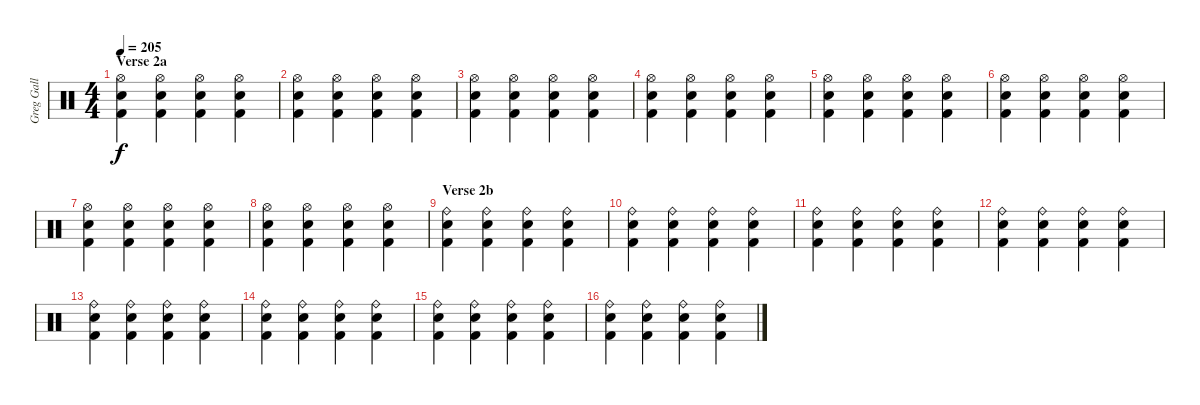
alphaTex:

\track ("Greg Gall - Drums" "Greg Gall ") {instrument percussion}
\staff {score}
\articulation defaults
\ts (4 4)
\section ("" "Verse 2a")
\tempo 205
\clef neutral
\ks c
("Hi-Hat (open)" "Snare (hit) 2" "Kick (hit) 2").4{dy f} ("Hi-Hat (open)" "Snare (hit) 2" "Kick (hit) 2").4 ("Hi-Hat (open)" "Snare (hit) 2" "Kick (hit) 2").4 ("Hi-Hat (open)" "Snare (hit) 2" "Kick (hit) 2").4 |
("Hi-Hat (open)" "Snare (hit) 2" "Kick (hit) 2").4 ("Hi-Hat (open)" "Snare (hit) 2" "Kick (hit) 2").4 ("Hi-Hat (open)" "Snare (hit) 2" "Kick (hit) 2").4 ("Hi-Hat (open)" "Snare (hit) 2" "Kick (hit) 2").4 |
("Hi-Hat (open)" "Snare (hit) 2" "Kick (hit) 2").4 ("Hi-Hat (open)" "Snare (hit) 2" "Kick (hit) 2").4 ("Hi-Hat (open)" "Snare (hit) 2" "Kick (hit) 2").4 ("Hi-Hat (open)" "Snare (hit) 2" "Kick (hit) 2").4 |
("Hi-Hat (open)" "Snare (hit) 2" "Kick (hit) 2").4 ("Hi-Hat (open)" "Snare (hit) 2" "Kick (hit) 2").4 ("Hi-Hat (open)" "Snare (hit) 2" "Kick (hit) 2").4 ("Hi-Hat (open)" "Snare (hit) 2" "Kick (hit) 2").4 |
("Hi-Hat (open)" "Snare (hit) 2" "Kick (hit) 2").4 ("Hi-Hat (open)" "Snare (hit) 2" "Kick (hit) 2").4 ("Hi-Hat (open)" "Snare (hit) 2" "Kick (hit) 2").4 ("Hi-Hat (open)" "Snare (hit) 2" "Kick (hit) 2").4 |
("Hi-Hat (open)" "Snare (hit) 2" "Kick (hit) 2").4 ("Hi-Hat (open)" "Snare (hit) 2" "Kick (hit) 2").4 ("Hi-Hat (open)" "Snare (hit) 2" "Kick (hit) 2").4 ("Hi-Hat (open)" "Snare (hit) 2" "Kick (hit) 2").4 |
("Hi-Hat (open)" "Snare (hit) 2" "Kick (hit) 2").4 ("Hi-Hat (open)" "Snare (hit) 2" "Kick (hit) 2").4 ("Hi-Hat (open)" "Snare (hit) 2" "Kick (hit) 2").4 ("Hi-Hat (open)" "Snare (hit) 2" "Kick (hit) 2").4 |
("Hi-Hat (open)" "Snare (hit) 2" "Kick (hit) 2").4 ("Hi-Hat (open)" "Snare (hit) 2" "Kick (hit) 2").4 ("Hi-Hat (open)" "Snare (hit) 2" "Kick (hit) 2").4 ("Hi-Hat (open)" "Snare (hit) 2" "Kick (hit) 2").4 |
\section ("" "Verse 2b")
("Ride (bell)" "Snare (hit) 2" "Kick (hit) 2").4 ("Ride (bell)" "Snare (hit) 2" "Kick (hit) 2").4 ("Ride (bell)" "Snare (hit) 2" "Kick (hit) 2").4 ("Ride (bell)" "Snare (hit) 2" "Kick (hit) 2").4 |
("Ride (bell)" "Snare (hit) 2" "Kick (hit) 2").4 ("Ride (bell)" "Snare (hit) 2" "Kick (hit) 2").4 ("Ride (bell)" "Snare (hit) 2" "Kick (hit) 2").4 ("Ride (bell)" "Snare (hit) 2" "Kick (hit) 2").4 |
("Ride (bell)" "Snare (hit) 2" "Kick (hit) 2").4 ("Ride (bell)" "Snare (hit) 2" "Kick (hit) 2").4 ("Ride (bell)" "Snare (hit) 2" "Kick (hit) 2").4 ("Ride (bell)" "Snare (hit) 2" "Kick (hit) 2").4 |
("Ride (bell)" "Snare (hit) 2" "Kick (hit) 2").4 ("Ride (bell)" "Snare (hit) 2" "Kick (hit) 2").4 ("Ride (bell)" "Snare (hit) 2" "Kick (hit) 2").4 ("Ride (bell)" "Snare (hit) 2" "Kick (hit) 2").4 |
("Ride (bell)" "Snare (hit) 2" "Kick (hit) 2").4 ("Ride (bell)" "Snare (hit) 2" "Kick (hit) 2").4 ("Ride (bell)" "Snare (hit) 2" "Kick (hit) 2").4 ("Ride (bell)" "Snare (hit) 2" "Kick (hit) 2").4 |
("Ride (bell)" "Snare (hit) 2" "Kick (hit) 2").4 ("Ride (bell)" "Snare (hit) 2" "Kick (hit) 2").4 ("Ride (bell)" "Snare (hit) 2" "Kick (hit) 2").4 ("Ride (bell)" "Snare (hit) 2" "Kick (hit) 2").4 |
("Ride (bell)" "Snare (hit) 2" "Kick (hit) 2").4 ("Ride (bell)" "Snare (hit) 2" "Kick (hit) 2").4 ("Ride (bell)" "Snare (hit) 2" "Kick (hit) 2").4 ("Ride (bell)" "Snare (hit) 2" "Kick (hit) 2").4 |
("Ride (bell)" "Snare (hit) 2" "Kick (hit) 2").4 ("Ride (bell)" "Snare (hit) 2" "Kick (hit) 2").4 ("Ride (bell)" "Snare (hit) 2" "Kick (hit) 2").4 ("Ride (bell)" "Snare (hit) 2" "Kick (hit) 2").4
